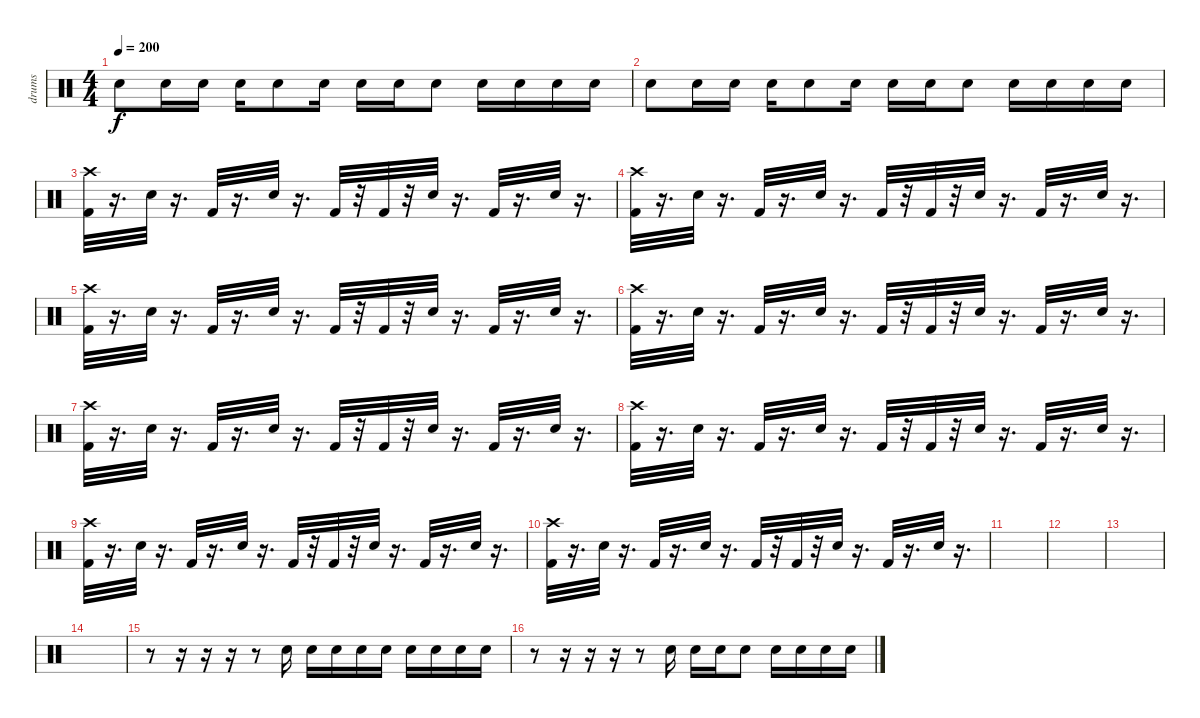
\track ("drums" "drums") {instrument percussion}
\staff {score}
\articulation defaults
\ts (4 4)
\tempo 200
\clef neutral
\ks c "Electric Snare (hit)".8{dy f} "Electric Snare (hit)".16 "Electric Snare (hit)".16 "Electric Snare (hit)".16 "Electric Snare (hit)".8 "Electric Snare (hit)".16 "Electric Snare (hit)".16 "Electric Snare (hit)".16 "Electric Snare (hit)".8 "Electric Snare (hit)".16 "Electric Snare (hit)".16 "Electric Snare (hit)".16 "Electric Snare (hit)".16
|
"Electric Snare (hit)".8 "Electric Snare (hit)".16 "Electric Snare (hit)".16 "Electric Snare (hit)".16 "Electric Snare (hit)".8 "Electric Snare (hit)".16 "Electric Snare (hit)".16 "Electric Snare (hit)".16 "Electric Snare (hit)".8 "Electric Snare (hit)".16 "Electric Snare (hit)".16 "Electric Snare (hit)".16 "Electric Snare (hit)".16 |
("Kick (hit) 2" "Crash high (hit)").32 r.16{d} "Electric Snare (hit)".32 r.16{d} "Kick (hit) 2".32 r.16{d} "Electric Snare (hit)".32 r.16{d} "Kick (hit) 2".32 r.32 "Kick (hit) 2".32 r.32 "Electric Snare (hit)".32 r.16{d} "Kick (hit) 2".32 r.16{d} "Electric Snare (hit)".32 r.16{d} |
("Kick (hit) 2" "Crash high (hit)").32 r.16{d} "Electric Snare (hit)".32 r.16{d} "Kick (hit) 2".32 r.16{d} "Electric Snare (hit)".32 r.16{d} "Kick (hit) 2".32 r.32 "Kick (hit) 2".32 r.32 "Electric Snare (hit)".32 r.16{d} "Kick (hit) 2".32 r.16{d} "Electric Snare (hit)".32 r.16{d} |
("Kick (hit) 2" "Crash high (hit)").32 r.16{d} "Electric Snare (hit)".32 r.16{d} "Kick (hit) 2".32 r.16{d} "Electric Snare (hit)".32 r.16{d} "Kick (hit) 2".32 r.32 "Kick (hit) 2".32 r.32 "Electric Snare (hit)".32 r.16{d} "Kick (hit) 2".32 r.16{d} "Electric Snare (hit)".32 r.16{d} |
("Kick (hit) 2" "Crash high (hit)").32 r.16{d} "Electric Snare (hit)".32 r.16{d} "Kick (hit) 2".32 r.16{d} "Electric Snare (hit)".32 r.16{d} "Kick (hit) 2".32 r.32 "Kick (hit) 2".32 r.32 "Electric Snare (hit)".32 r.16{d} "Kick (hit) 2".32 r.16{d} "Electric Snare (hit)".32 r.16{d} |
("Kick (hit) 2" "Crash high (hit)").32 r.16{d} "Electric Snare (hit)".32 r.16{d} "Kick (hit) 2".32 r.16{d} "Electric Snare (hit)".32 r.16{d} "Kick (hit) 2".32 r.32 "Kick (hit) 2".32 r.32 "Electric Snare (hit)".32 r.16{d} "Kick (hit) 2".32 r.16{d} "Electric Snare (hit)".32 r.16{d} |
("Kick (hit) 2" "Crash high (hit)").32 r.16{d} "Electric Snare (hit)".32 r.16{d} "Kick (hit) 2".32 r.16{d} "Electric Snare (hit)".32 r.16{d} "Kick (hit) 2".32 r.32 "Kick (hit) 2".32 r.32 "Electric Snare (hit)".32 r.16{d} "Kick (hit) 2".32 r.16{d} "Electric Snare (hit)".32 r.16{d} |
("Kick (hit) 2" "Crash high (hit)").32 r.16{d} "Electric Snare (hit)".32 r.16{d} "Kick (hit) 2".32 r.16{d} "Electric Snare (hit)".32 r.16{d} "Kick (hit) 2".32 r.32 "Kick (hit) 2".32 r.32 "Electric Snare (hit)".32 r.16{d} "Kick (hit) 2".32 r.16{d} "Electric Snare (hit)".32 r.16{d} |
("Kick (hit) 2" "Crash high (hit)").32 r.16{d} "Electric Snare (hit)".32 r.16{d} "Kick (hit) 2".32 r.16{d} "Electric Snare (hit)".32 r.16{d} "Kick (hit) 2".32 r.32 "Kick (hit) 2".32 r.32 "Electric Snare (hit)".32 r.16{d} "Kick (hit) 2".32 r.16{d} "Electric Snare (hit)".32 r.16{d} |
|
|
|
|
r.8 r.16 r.16 r.16 r.8 "Electric Snare (hit)".16 "Electric Snare (hit)".16 "Electric Snare (hit)".16 "Electric Snare (hit)".16 "Electric Snare (hit)".16 "Electric Snare (hit)".16 "Electric Snare (hit)".16 "Electric Snare (hit)".16 "Electric Snare (hit)".16 |
r.8 r.16 r.16 r.16 r.8 "Electric Snare (hit)".16 "Electric Snare (hit)".16 "Electric Snare (hit)".16 "Electric Snare (hit)".8 "Electric Snare (hit)".16 "Electric Snare (hit)".16 "Electric Snare (hit)".16 "Electric Snare (hit)".16
